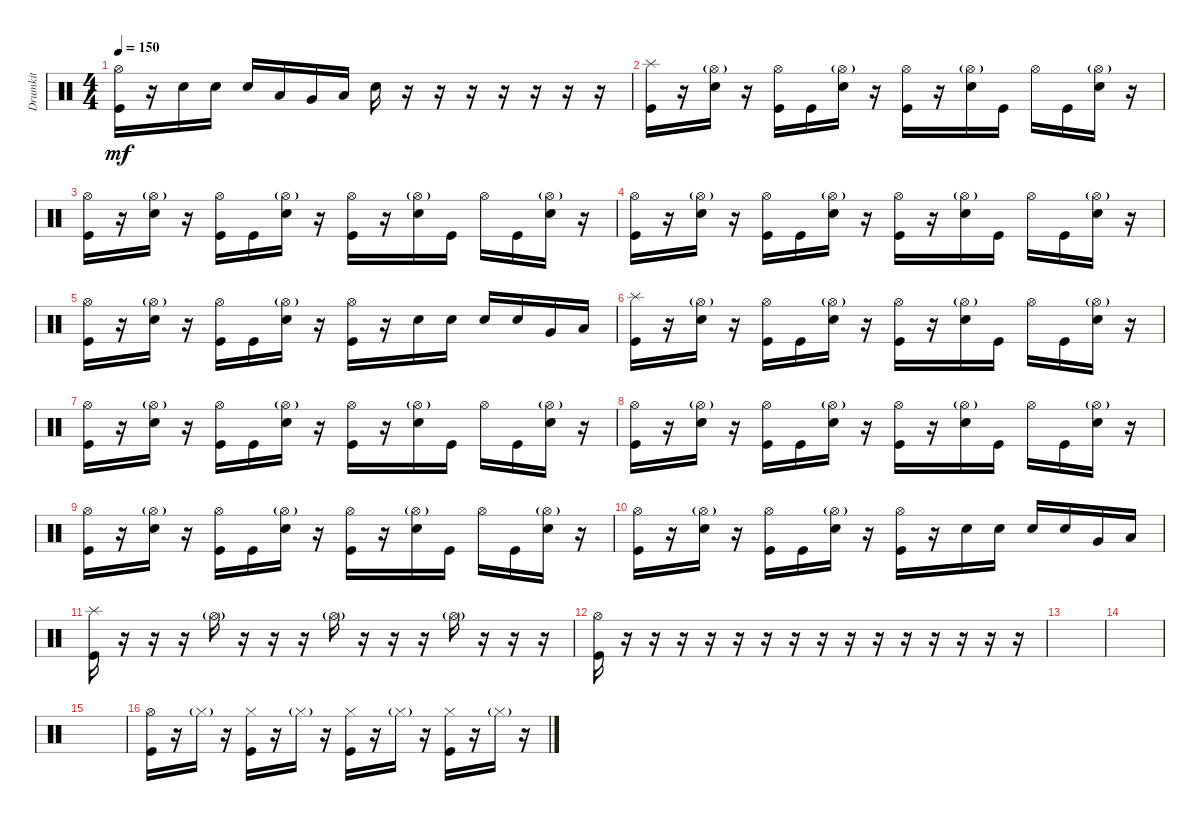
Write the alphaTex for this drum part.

\track ("Drumkit" "Drumkit") {instrument percussion}
\staff {score}
\articulation defaults
\ts (4 4)
\tempo 150
\clef neutral
\ks c
("Kick (hit)" "Hi-Hat (open)").16{dy mf} r.16 "Snare (hit) 2".16 "Snare (hit) 2".16 "Snare (hit) 2".16 "Low Tom (hit)".16 "Very Low Tom (hit)".16 "Low Floor Tom (hit)".16 "Snare (hit) 2".16 r.16 r.16 r.16 r.16 r.16 r.16 r.16 |
("Kick (hit)" "Splash (hit)").16 r.16 ("Snare (hit) 2" "Hi-Hat (open)"{g}).16 r.16 ("Kick (hit)" "Hi-Hat (open)").16 "Kick (hit)".16 ("Snare (hit) 2" "Hi-Hat (open)"{g}).16 r.16 ("Kick (hit)" "Hi-Hat (open)").16 r.16 ("Snare (hit) 2" "Hi-Hat (open)"{g}).16 "Kick (hit)".16 "Hi-Hat (open)".16 "Kick (hit)".16 ("Snare (hit) 2" "Hi-Hat (open)"{g}).16 r.16 |
("Kick (hit)" "Hi-Hat (open)").16 r.16 ("Snare (hit) 2" "Hi-Hat (open)"{g}).16 r.16 ("Kick (hit)" "Hi-Hat (open)").16 "Kick (hit)".16 ("Snare (hit) 2" "Hi-Hat (open)"{g}).16 r.16 ("Kick (hit)" "Hi-Hat (open)").16 r.16 ("Snare (hit) 2" "Hi-Hat (open)"{g}).16 "Kick (hit)".16 "Hi-Hat (open)".16 "Kick (hit)".16 ("Snare (hit) 2" "Hi-Hat (open)"{g}).16 r.16 |
("Kick (hit)" "Hi-Hat (open)").16 r.16 ("Snare (hit) 2" "Hi-Hat (open)"{g}).16 r.16 ("Kick (hit)" "Hi-Hat (open)").16 "Kick (hit)".16 ("Snare (hit) 2" "Hi-Hat (open)"{g}).16 r.16 ("Kick (hit)" "Hi-Hat (open)").16 r.16 ("Snare (hit) 2" "Hi-Hat (open)"{g}).16 "Kick (hit)".16 "Hi-Hat (open)".16 "Kick (hit)".16 ("Snare (hit) 2" "Hi-Hat (open)"{g}).16 r.16 |
("Kick (hit)" "Hi-Hat (open)").16 r.16 ("Snare (hit) 2" "Hi-Hat (open)"{g}).16 r.16 ("Kick (hit)" "Hi-Hat (open)").16 "Kick (hit)".16 ("Snare (hit) 2" "Hi-Hat (open)"{g}).16 r.16 ("Kick (hit)" "Hi-Hat (open)").16 r.16 "Snare (hit) 2".16 "Snare (hit) 2".16 "Snare (hit) 2".16 "Snare (hit) 2".16 "Very Low Tom (hit)".16 "Low Floor Tom (hit)".16 |
("Kick (hit)" "Splash (hit)").16 r.16 ("Snare (hit) 2" "Hi-Hat (open)"{g}).16 r.16 ("Kick (hit)" "Hi-Hat (open)").16 "Kick (hit)".16 ("Snare (hit) 2" "Hi-Hat (open)"{g}).16 r.16 ("Kick (hit)" "Hi-Hat (open)").16 r.16 ("Snare (hit) 2" "Hi-Hat (open)"{g}).16 "Kick (hit)".16 "Hi-Hat (open)".16 "Kick (hit)".16 ("Snare (hit) 2" "Hi-Hat (open)"{g}).16 r.16 |
("Kick (hit)" "Hi-Hat (open)").16 r.16 ("Snare (hit) 2" "Hi-Hat (open)"{g}).16 r.16 ("Kick (hit)" "Hi-Hat (open)").16 "Kick (hit)".16 ("Snare (hit) 2" "Hi-Hat (open)"{g}).16 r.16 ("Kick (hit)" "Hi-Hat (open)").16 r.16 ("Snare (hit) 2" "Hi-Hat (open)"{g}).16 "Kick (hit)".16 "Hi-Hat (open)".16 "Kick (hit)".16 ("Snare (hit) 2" "Hi-Hat (open)"{g}).16 r.16 |
("Kick (hit)" "Hi-Hat (open)").16 r.16 ("Snare (hit) 2" "Hi-Hat (open)"{g}).16 r.16 ("Kick (hit)" "Hi-Hat (open)").16 "Kick (hit)".16 ("Snare (hit) 2" "Hi-Hat (open)"{g}).16 r.16 ("Kick (hit)" "Hi-Hat (open)").16 r.16 ("Snare (hit) 2" "Hi-Hat (open)"{g}).16 "Kick (hit)".16 "Hi-Hat (open)".16 "Kick (hit)".16 ("Snare (hit) 2" "Hi-Hat (open)"{g}).16 r.16 |
("Kick (hit)" "Hi-Hat (open)").16 r.16 ("Snare (hit) 2" "Hi-Hat (open)"{g}).16 r.16 ("Kick (hit)" "Hi-Hat (open)").16 "Kick (hit)".16 ("Snare (hit) 2" "Hi-Hat (open)"{g}).16 r.16 ("Kick (hit)" "Hi-Hat (open)").16 r.16 ("Snare (hit) 2" "Hi-Hat (open)"{g}).16 "Kick (hit)".16 "Hi-Hat (open)".16 "Kick (hit)".16 ("Snare (hit) 2" "Hi-Hat (open)"{g}).16 r.16 |
("Kick (hit)" "Hi-Hat (open)").16 r.16 ("Snare (hit) 2" "Hi-Hat (open)"{g}).16 r.16 ("Kick (hit)" "Hi-Hat (open)").16 "Kick (hit)".16 ("Snare (hit) 2" "Hi-Hat (open)"{g}).16 r.16 ("Kick (hit)" "Hi-Hat (open)").16 r.16 "Snare (hit) 2".16 "Snare (hit) 2".16 "Snare (hit) 2".16 "Snare (hit) 2".16 "Very Low Tom (hit)".16 "Low Floor Tom (hit)".16 |
("Splash (hit)" "Kick (hit)").16 r.16 r.16 r.16 "Hi-Hat (open)"{g}.16 r.16 r.16 r.16 "Hi-Hat (open)"{g}.16 r.16 r.16 r.16 "Hi-Hat (open)"{g}.16 r.16 r.16 r.16 |
("Kick (hit)" "Hi-Hat (open)").16 r.16 r.16 r.16 r.16 r.16 r.16 r.16 r.16 r.16 r.16 r.16 r.16 r.16 r.16 r.16 |
|
|
|
("Kick (hit)" "Hi-Hat (open)").16 r.16 "Hi-Hat (closed)"{g}.16 r.16 ("Kick (hit)" "Hi-Hat (closed)").16 r.16 "Hi-Hat (closed)"{g}.16 r.16 ("Kick (hit)" "Hi-Hat (closed)").16 r.16 "Hi-Hat (closed)"{g}.16 r.16 ("Kick (hit)" "Hi-Hat (closed)").16 r.16 "Hi-Hat (closed)"{g}.16 r.16
